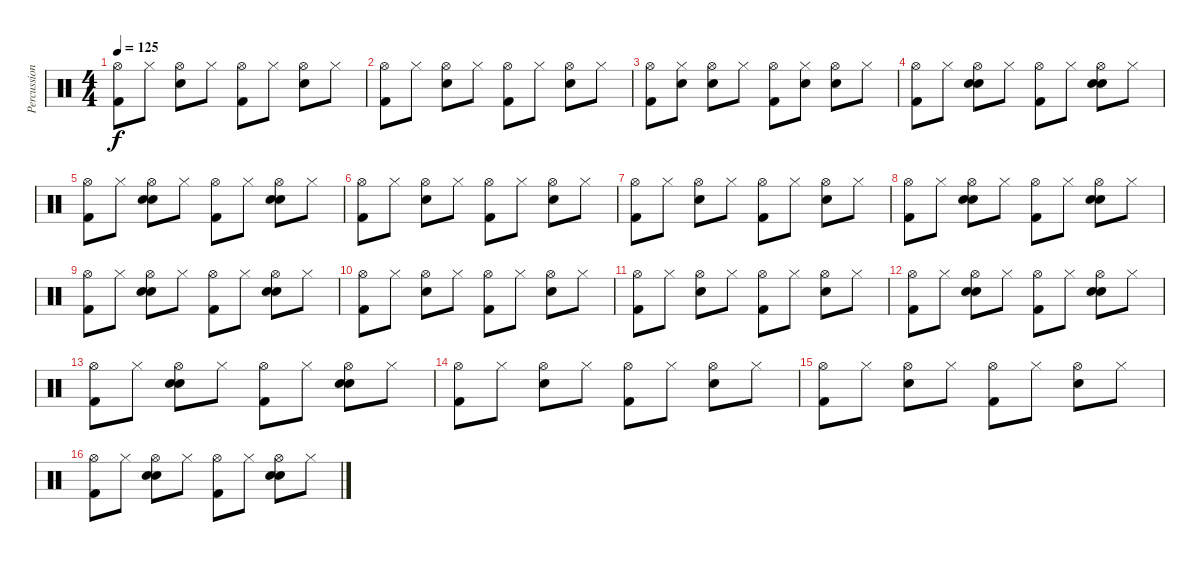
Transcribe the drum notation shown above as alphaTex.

\track ("Percussions" "Percussion") {instrument percussion}
\staff {score}
\articulation defaults
\ts (4 4)
\tempo 125
\clef neutral
\ks c
("Hi-Hat (open)" "Kick (hit) 2").8{dy f} "Hi-Hat (closed)".8 ("Hi-Hat (open)" "Snare (hit) 2").8 "Hi-Hat (closed)".8 ("Hi-Hat (open)" "Kick (hit) 2").8 "Hi-Hat (closed)".8 ("Hi-Hat (open)" "Snare (hit) 2").8 "Hi-Hat (closed)".8 |
("Hi-Hat (open)" "Kick (hit) 2").8 "Hi-Hat (closed)".8 ("Hi-Hat (open)" "Snare (hit) 2").8 "Hi-Hat (closed)".8 ("Hi-Hat (open)" "Kick (hit) 2").8 "Hi-Hat (closed)".8 ("Hi-Hat (open)" "Snare (hit) 2").8 "Hi-Hat (closed)".8 |
("Hi-Hat (open)" "Kick (hit) 2").8 ("Hi-Hat (closed)" "Snare (hit) 2").8 ("Hi-Hat (open)" "Snare (hit) 2").8 "Hi-Hat (closed)".8 ("Hi-Hat (open)" "Kick (hit) 2").8 ("Hi-Hat (closed)" "Snare (hit) 2").8 ("Hi-Hat (open)" "Snare (hit) 2").8 "Hi-Hat (closed)".8 |
("Hi-Hat (open)" "Kick (hit) 2").8 "Hi-Hat (closed)".8 ("Hi-Hat (open)" "Electric Snare (hit)" "Snare (hit) 2").8 "Hi-Hat (closed)".8 ("Hi-Hat (open)" "Kick (hit) 2").8 "Hi-Hat (closed)".8 ("Hi-Hat (open)" "Electric Snare (hit)" "Snare (hit) 2").8 "Hi-Hat (closed)".8 |
("Hi-Hat (open)" "Kick (hit) 2").8 "Hi-Hat (closed)".8 ("Hi-Hat (open)" "Electric Snare (hit)" "Snare (hit) 2").8 "Hi-Hat (closed)".8 ("Hi-Hat (open)" "Kick (hit) 2").8 "Hi-Hat (closed)".8 ("Hi-Hat (open)" "Electric Snare (hit)" "Snare (hit) 2").8 "Hi-Hat (closed)".8 |
("Hi-Hat (open)" "Kick (hit) 2").8 "Hi-Hat (closed)".8 ("Hi-Hat (open)" "Snare (hit) 2").8 "Hi-Hat (closed)".8 ("Hi-Hat (open)" "Kick (hit) 2").8 "Hi-Hat (closed)".8 ("Hi-Hat (open)" "Snare (hit) 2").8 "Hi-Hat (closed)".8 |
("Hi-Hat (open)" "Kick (hit) 2").8 "Hi-Hat (closed)".8 ("Hi-Hat (open)" "Snare (hit) 2").8 "Hi-Hat (closed)".8 ("Hi-Hat (open)" "Kick (hit) 2").8 "Hi-Hat (closed)".8 ("Hi-Hat (open)" "Snare (hit) 2").8 "Hi-Hat (closed)".8 |
("Hi-Hat (open)" "Kick (hit) 2").8 "Hi-Hat (closed)".8 ("Hi-Hat (open)" "Electric Snare (hit)" "Snare (hit) 2").8 "Hi-Hat (closed)".8 ("Hi-Hat (open)" "Kick (hit) 2").8 "Hi-Hat (closed)".8 ("Hi-Hat (open)" "Electric Snare (hit)" "Snare (hit) 2").8 "Hi-Hat (closed)".8 |
("Hi-Hat (open)" "Kick (hit) 2").8 "Hi-Hat (closed)".8 ("Hi-Hat (open)" "Electric Snare (hit)" "Snare (hit) 2").8 "Hi-Hat (closed)".8 ("Hi-Hat (open)" "Kick (hit) 2").8 "Hi-Hat (closed)".8 ("Hi-Hat (open)" "Electric Snare (hit)" "Snare (hit) 2").8 "Hi-Hat (closed)".8 |
("Hi-Hat (open)" "Kick (hit) 2").8 "Hi-Hat (closed)".8 ("Hi-Hat (open)" "Snare (hit) 2").8 "Hi-Hat (closed)".8 ("Hi-Hat (open)" "Kick (hit) 2").8 "Hi-Hat (closed)".8 ("Hi-Hat (open)" "Snare (hit) 2").8 "Hi-Hat (closed)".8 |
("Hi-Hat (open)" "Kick (hit) 2").8 "Hi-Hat (closed)".8 ("Hi-Hat (open)" "Snare (hit) 2").8 "Hi-Hat (closed)".8 ("Hi-Hat (open)" "Kick (hit) 2").8 "Hi-Hat (closed)".8 ("Hi-Hat (open)" "Snare (hit) 2").8 "Hi-Hat (closed)".8 |
("Hi-Hat (open)" "Kick (hit) 2").8 "Hi-Hat (closed)".8 ("Hi-Hat (open)" "Electric Snare (hit)" "Snare (hit) 2").8 "Hi-Hat (closed)".8 ("Hi-Hat (open)" "Kick (hit) 2").8 "Hi-Hat (closed)".8 ("Hi-Hat (open)" "Electric Snare (hit)" "Snare (hit) 2").8 "Hi-Hat (closed)".8 |
("Hi-Hat (open)" "Kick (hit) 2").8 "Hi-Hat (closed)".8 ("Hi-Hat (open)" "Electric Snare (hit)" "Snare (hit) 2").8 "Hi-Hat (closed)".8 ("Hi-Hat (open)" "Kick (hit) 2").8 "Hi-Hat (closed)".8 ("Hi-Hat (open)" "Electric Snare (hit)" "Snare (hit) 2").8 "Hi-Hat (closed)".8 |
("Hi-Hat (open)" "Kick (hit) 2").8 "Hi-Hat (closed)".8 ("Hi-Hat (open)" "Snare (hit) 2").8 "Hi-Hat (closed)".8 ("Hi-Hat (open)" "Kick (hit) 2").8 "Hi-Hat (closed)".8 ("Hi-Hat (open)" "Snare (hit) 2").8 "Hi-Hat (closed)".8 |
("Hi-Hat (open)" "Kick (hit) 2").8 "Hi-Hat (closed)".8 ("Hi-Hat (open)" "Snare (hit) 2").8 "Hi-Hat (closed)".8 ("Hi-Hat (open)" "Kick (hit) 2").8 "Hi-Hat (closed)".8 ("Hi-Hat (open)" "Snare (hit) 2").8 "Hi-Hat (closed)".8 |
("Hi-Hat (open)" "Kick (hit) 2").8 "Hi-Hat (closed)".8 ("Hi-Hat (open)" "Electric Snare (hit)" "Snare (hit) 2").8 "Hi-Hat (closed)".8 ("Hi-Hat (open)" "Kick (hit) 2").8 "Hi-Hat (closed)".8 ("Hi-Hat (open)" "Electric Snare (hit)" "Snare (hit) 2").8 "Hi-Hat (closed)".8
